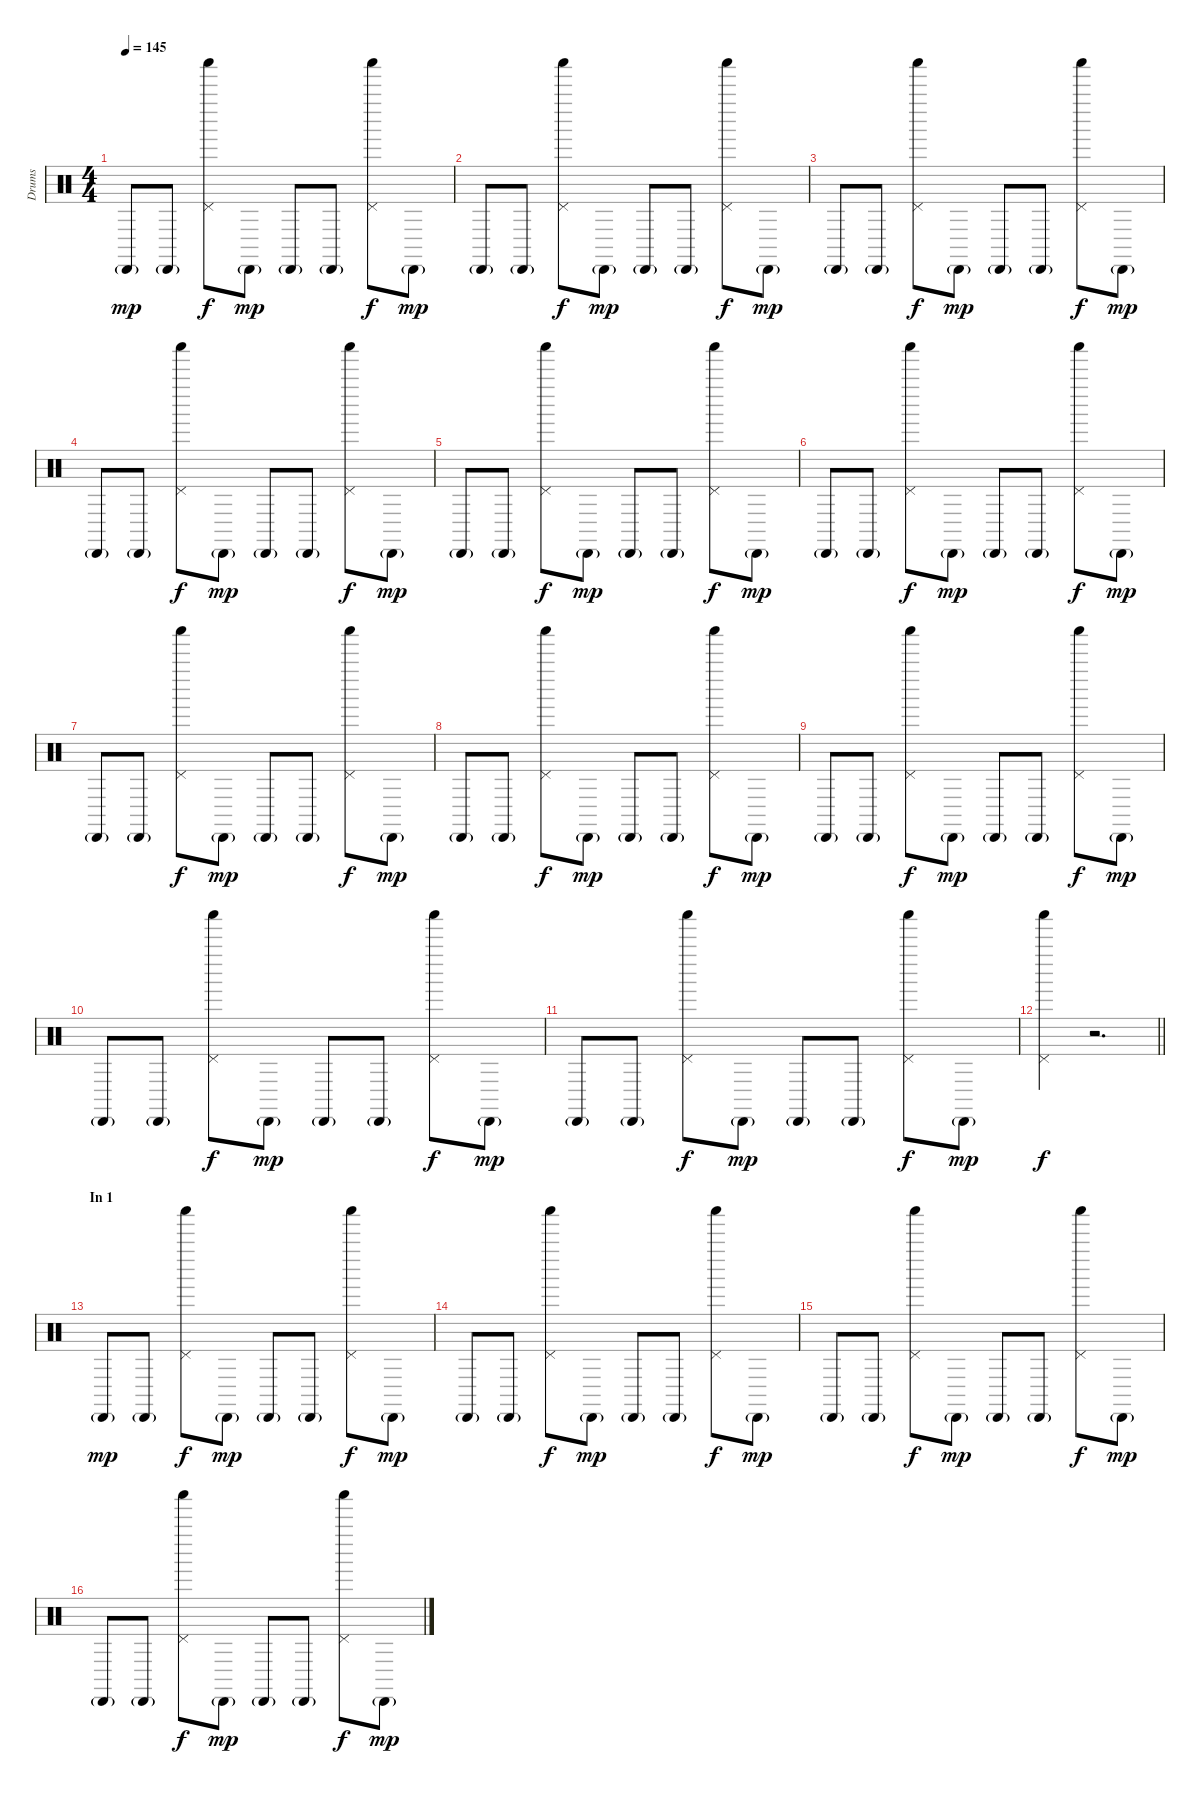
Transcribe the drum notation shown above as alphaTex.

\track ("Drums" "Drums") {instrument percussion}
\staff {score}
\articulation defaults
\ts (4 4)
\tempo 145
\clef neutral
\ks c "Cabasa (hit)"{g}.8{dy mp} "Cabasa (hit)"{g}.8
("Shaker (hit)" "Pedal Hi-Hat (hit)").8{dy f} "Cabasa (hit)"{g}.8{dy mp} "Cabasa (hit)"{g}.8 "Cabasa (hit)"{g}.8 ("Shaker (hit)" "Pedal Hi-Hat (hit)").8{dy f} "Cabasa (hit)"{g}.8{dy mp} |
"Cabasa (hit)"{g}.8 "Cabasa (hit)"{g}.8 ("Shaker (hit)" "Pedal Hi-Hat (hit)").8{dy f} "Cabasa (hit)"{g}.8{dy mp} "Cabasa (hit)"{g}.8 "Cabasa (hit)"{g}.8 ("Shaker (hit)" "Pedal Hi-Hat (hit)").8{dy f} "Cabasa (hit)"{g}.8{dy mp} |
"Cabasa (hit)"{g}.8 "Cabasa (hit)"{g}.8 ("Shaker (hit)" "Pedal Hi-Hat (hit)").8{dy f} "Cabasa (hit)"{g}.8{dy mp} "Cabasa (hit)"{g}.8 "Cabasa (hit)"{g}.8 ("Shaker (hit)" "Pedal Hi-Hat (hit)").8{dy f} "Cabasa (hit)"{g}.8{dy mp} |
"Cabasa (hit)"{g}.8 "Cabasa (hit)"{g}.8 ("Shaker (hit)" "Pedal Hi-Hat (hit)").8{dy f} "Cabasa (hit)"{g}.8{dy mp} "Cabasa (hit)"{g}.8 "Cabasa (hit)"{g}.8 ("Shaker (hit)" "Pedal Hi-Hat (hit)").8{dy f} "Cabasa (hit)"{g}.8{dy mp} |
"Cabasa (hit)"{g}.8 "Cabasa (hit)"{g}.8 ("Shaker (hit)" "Pedal Hi-Hat (hit)").8{dy f} "Cabasa (hit)"{g}.8{dy mp} "Cabasa (hit)"{g}.8 "Cabasa (hit)"{g}.8 ("Shaker (hit)" "Pedal Hi-Hat (hit)").8{dy f} "Cabasa (hit)"{g}.8{dy mp} |
"Cabasa (hit)"{g}.8 "Cabasa (hit)"{g}.8 ("Shaker (hit)" "Pedal Hi-Hat (hit)").8{dy f} "Cabasa (hit)"{g}.8{dy mp} "Cabasa (hit)"{g}.8 "Cabasa (hit)"{g}.8 ("Shaker (hit)" "Pedal Hi-Hat (hit)").8{dy f} "Cabasa (hit)"{g}.8{dy mp} |
"Cabasa (hit)"{g}.8 "Cabasa (hit)"{g}.8 ("Shaker (hit)" "Pedal Hi-Hat (hit)").8{dy f} "Cabasa (hit)"{g}.8{dy mp} "Cabasa (hit)"{g}.8 "Cabasa (hit)"{g}.8 ("Shaker (hit)" "Pedal Hi-Hat (hit)").8{dy f} "Cabasa (hit)"{g}.8{dy mp} |
"Cabasa (hit)"{g}.8 "Cabasa (hit)"{g}.8 ("Shaker (hit)" "Pedal Hi-Hat (hit)").8{dy f} "Cabasa (hit)"{g}.8{dy mp} "Cabasa (hit)"{g}.8 "Cabasa (hit)"{g}.8 ("Shaker (hit)" "Pedal Hi-Hat (hit)").8{dy f} "Cabasa (hit)"{g}.8{dy mp} |
"Cabasa (hit)"{g}.8 "Cabasa (hit)"{g}.8 ("Shaker (hit)" "Pedal Hi-Hat (hit)").8{dy f} "Cabasa (hit)"{g}.8{dy mp} "Cabasa (hit)"{g}.8 "Cabasa (hit)"{g}.8 ("Shaker (hit)" "Pedal Hi-Hat (hit)").8{dy f} "Cabasa (hit)"{g}.8{dy mp} |
"Cabasa (hit)"{g}.8 "Cabasa (hit)"{g}.8 ("Shaker (hit)" "Pedal Hi-Hat (hit)").8{dy f} "Cabasa (hit)"{g}.8{dy mp} "Cabasa (hit)"{g}.8 "Cabasa (hit)"{g}.8 ("Shaker (hit)" "Pedal Hi-Hat (hit)").8{dy f} "Cabasa (hit)"{g}.8{dy mp} |
"Cabasa (hit)"{g}.8 "Cabasa (hit)"{g}.8 ("Shaker (hit)" "Pedal Hi-Hat (hit)").8{dy f} "Cabasa (hit)"{g}.8{dy mp} "Cabasa (hit)"{g}.8 "Cabasa (hit)"{g}.8 ("Shaker (hit)" "Pedal Hi-Hat (hit)").8{dy f} "Cabasa (hit)"{g}.8{dy mp} |
\barLineRight lightlight
("Shaker (hit)" "Pedal Hi-Hat (hit)").4{dy f} r.2{d} |
\section ("" "In 1")
"Cabasa (hit)"{g}.8{dy mp} "Cabasa (hit)"{g}.8 ("Shaker (hit)" "Pedal Hi-Hat (hit)").8{dy f} "Cabasa (hit)"{g}.8{dy mp} "Cabasa (hit)"{g}.8 "Cabasa (hit)"{g}.8 ("Shaker (hit)" "Pedal Hi-Hat (hit)").8{dy f} "Cabasa (hit)"{g}.8{dy mp} |
"Cabasa (hit)"{g}.8 "Cabasa (hit)"{g}.8 ("Shaker (hit)" "Pedal Hi-Hat (hit)").8{dy f} "Cabasa (hit)"{g}.8{dy mp} "Cabasa (hit)"{g}.8 "Cabasa (hit)"{g}.8 ("Shaker (hit)" "Pedal Hi-Hat (hit)").8{dy f} "Cabasa (hit)"{g}.8{dy mp} |
"Cabasa (hit)"{g}.8 "Cabasa (hit)"{g}.8 ("Shaker (hit)" "Pedal Hi-Hat (hit)").8{dy f} "Cabasa (hit)"{g}.8{dy mp} "Cabasa (hit)"{g}.8 "Cabasa (hit)"{g}.8 ("Shaker (hit)" "Pedal Hi-Hat (hit)").8{dy f} "Cabasa (hit)"{g}.8{dy mp} |
"Cabasa (hit)"{g}.8 "Cabasa (hit)"{g}.8 ("Shaker (hit)" "Pedal Hi-Hat (hit)").8{dy f} "Cabasa (hit)"{g}.8{dy mp} "Cabasa (hit)"{g}.8 "Cabasa (hit)"{g}.8 ("Shaker (hit)" "Pedal Hi-Hat (hit)").8{dy f} "Cabasa (hit)"{g}.8{dy mp}
